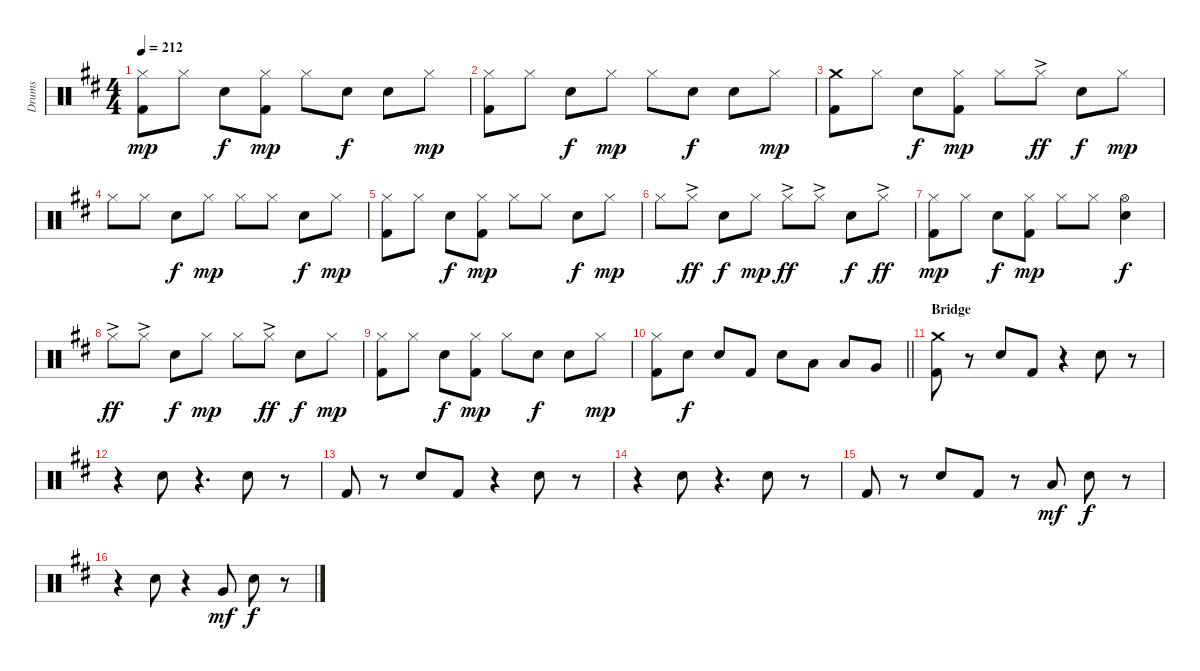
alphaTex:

\track ("Drums" "Drums") {instrument percussion}
\staff {score}
\articulation defaults
\ts (4 4)
\tempo 212
\clef neutral
\ks d
("Hi-Hat (closed)" "Kick (hit) 2").8{dy mp} "Hi-Hat (closed)".8 "Electric Snare (hit)".8{dy f} ("Hi-Hat (closed)" "Kick (hit) 2").8{dy mp} "Hi-Hat (closed)".8 "Electric Snare (hit)".8{dy f} "Electric Snare (hit)".8 "Hi-Hat (closed)".8{dy mp} |
("Hi-Hat (closed)" "Kick (hit) 2").8 "Hi-Hat (closed)".8 "Electric Snare (hit)".8{dy f} "Hi-Hat (closed)".8{dy mp} "Hi-Hat (closed)".8 "Electric Snare (hit)".8{dy f} "Electric Snare (hit)".8 "Hi-Hat (closed)".8{dy mp} |
("Crash medium (hit)" "Kick (hit) 2").8 "Hi-Hat (closed)".8 "Electric Snare (hit)".8{dy f} ("Hi-Hat (closed)" "Kick (hit) 2").8{dy mp} "Hi-Hat (closed)".8 "Hi-Hat (closed)"{ac}.8{dy ff} "Electric Snare (hit)".8{dy f} "Hi-Hat (closed)".8{dy mp} |
"Hi-Hat (closed)".8 "Hi-Hat (closed)".8 "Electric Snare (hit)".8{dy f} "Hi-Hat (closed)".8{dy mp} "Hi-Hat (closed)".8 "Hi-Hat (closed)".8 "Electric Snare (hit)".8{dy f} "Hi-Hat (closed)".8{dy mp} |
("Hi-Hat (closed)" "Kick (hit) 2").8 "Hi-Hat (closed)".8 "Electric Snare (hit)".8{dy f} ("Hi-Hat (closed)" "Kick (hit) 2").8{dy mp} "Hi-Hat (closed)".8 "Hi-Hat (closed)".8 "Electric Snare (hit)".8{dy f} "Hi-Hat (closed)".8{dy mp} |
"Hi-Hat (closed)".8 "Hi-Hat (closed)"{ac}.8{dy ff} "Electric Snare (hit)".8{dy f} "Hi-Hat (closed)".8{dy mp} "Hi-Hat (closed)"{ac}.8{dy ff} "Hi-Hat (closed)"{ac}.8 "Electric Snare (hit)".8{dy f} "Hi-Hat (closed)"{ac}.8{dy ff} |
("Hi-Hat (closed)" "Kick (hit) 2").8{dy mp} "Hi-Hat (closed)".8 "Electric Snare (hit)".8{dy f} ("Hi-Hat (closed)" "Kick (hit) 2").8{dy mp} "Hi-Hat (closed)".8 "Hi-Hat (closed)".8 ("Hi-Hat (open)" "Electric Snare (hit)").4{dy f} |
"Hi-Hat (closed)"{ac}.8{dy ff} "Hi-Hat (closed)"{ac}.8 "Electric Snare (hit)".8{dy f} "Hi-Hat (closed)".8{dy mp} "Hi-Hat (closed)".8 "Hi-Hat (closed)"{ac}.8{dy ff} "Electric Snare (hit)".8{dy f} "Hi-Hat (closed)".8{dy mp} |
("Hi-Hat (closed)" "Kick (hit) 2").8 "Hi-Hat (closed)".8 "Electric Snare (hit)".8{dy f} ("Hi-Hat (closed)" "Kick (hit) 2").8{dy mp} "Hi-Hat (closed)".8 "Electric Snare (hit)".8{dy f} "Electric Snare (hit)".8 "Hi-Hat (closed)".8{dy mp} |
\barLineRight lightlight
("Hi-Hat (closed)" "Kick (hit) 2").8 "Electric Snare (hit)".8{dy f} "Electric Snare (hit)".8 "Kick (hit) 2".8 "Electric Snare (hit)".8 "Low Tom (hit)".8 "Low Tom (hit)".8 "Very Low Tom (hit)".8 |
\section ("" "Bridge")
("Crash medium (hit)" "Kick (hit) 2").8 r.8 "Electric Snare (hit)".8 "Kick (hit) 2".8 r.4 "Electric Snare (hit)".8 r.8 |
r.4 "Electric Snare (hit)".8 r.4{d} "Electric Snare (hit)".8 r.8 |
"Kick (hit) 2".8 r.8 "Electric Snare (hit)".8 "Kick (hit) 2".8 r.4 "Electric Snare (hit)".8 r.8 |
r.4 "Electric Snare (hit)".8 r.4{d} "Electric Snare (hit)".8 r.8 |
"Kick (hit) 2".8 r.8 "Electric Snare (hit)".8 "Kick (hit) 2".8 r.8 "Low Tom (hit)".8{dy mf} "Electric Snare (hit)".8{dy f} r.8 |
r.4 "Electric Snare (hit)".8 r.4 "Very Low Tom (hit)".8{dy mf} "Electric Snare (hit)".8{dy f} r.8
